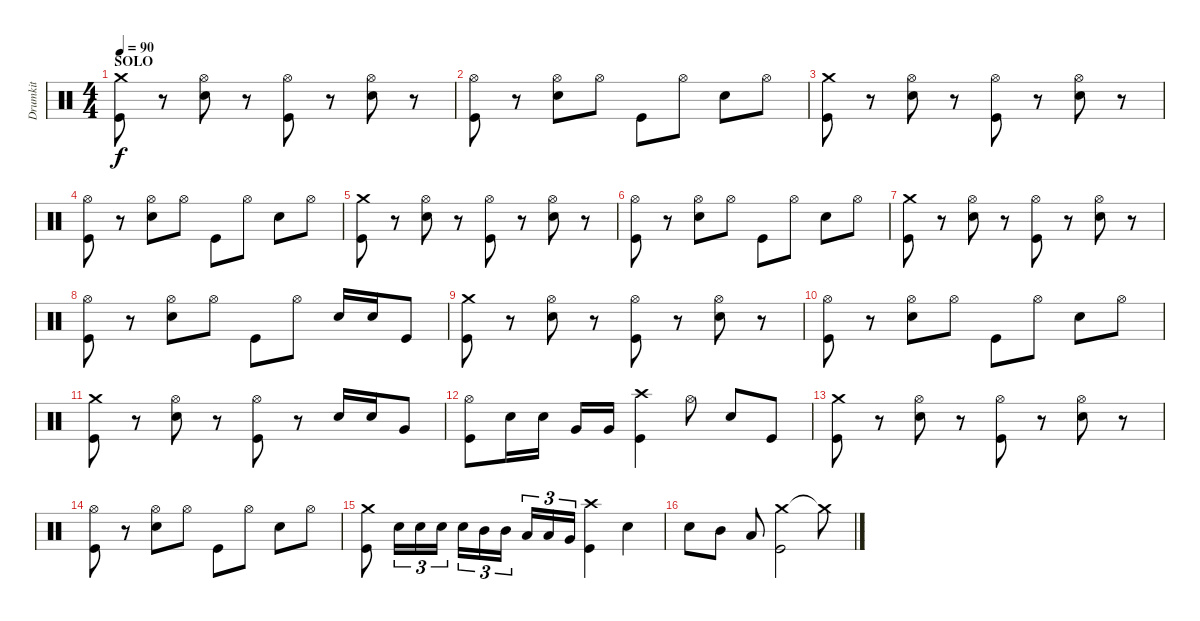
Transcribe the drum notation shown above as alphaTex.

\track ("Drumkit" "Drumkit") {instrument percussion}
\staff {score}
\articulation defaults
\ts (4 4)
\section ("" "SOLO")
\tempo 90
\clef neutral
\ks c
("Crash medium (hit)" "Kick (hit)").8{dy f} r.8 ("Hi-Hat (open)" "Snare (hit) 2").8 r.8 ("Hi-Hat (open)" "Kick (hit)").8 r.8 ("Hi-Hat (open)" "Snare (hit) 2").8 r.8 |
("Hi-Hat (open)" "Kick (hit)").8 r.8 ("Hi-Hat (open)" "Snare (hit) 2").8 "Hi-Hat (open)".8 "Kick (hit)".8 "Hi-Hat (open)".8 "Snare (hit) 2".8 "Hi-Hat (open)".8 |
("Crash medium (hit)" "Kick (hit)").8 r.8 ("Hi-Hat (open)" "Snare (hit) 2").8 r.8 ("Hi-Hat (open)" "Kick (hit)").8 r.8 ("Hi-Hat (open)" "Snare (hit) 2").8 r.8 |
("Hi-Hat (open)" "Kick (hit)").8 r.8 ("Hi-Hat (open)" "Snare (hit) 2").8 "Hi-Hat (open)".8 "Kick (hit)".8 "Hi-Hat (open)".8 "Snare (hit) 2".8 "Hi-Hat (open)".8 |
("Crash medium (hit)" "Kick (hit)").8 r.8 ("Hi-Hat (open)" "Snare (hit) 2").8 r.8 ("Hi-Hat (open)" "Kick (hit)").8 r.8 ("Hi-Hat (open)" "Snare (hit) 2").8 r.8 |
("Hi-Hat (open)" "Kick (hit)").8 r.8 ("Hi-Hat (open)" "Snare (hit) 2").8 "Hi-Hat (open)".8 "Kick (hit)".8 "Hi-Hat (open)".8 "Snare (hit) 2".8 "Hi-Hat (open)".8 |
("Crash medium (hit)" "Kick (hit)").8 r.8 ("Hi-Hat (open)" "Snare (hit) 2").8 r.8 ("Hi-Hat (open)" "Kick (hit)").8 r.8 ("Hi-Hat (open)" "Snare (hit) 2").8 r.8 |
("Hi-Hat (open)" "Kick (hit)").8 r.8 ("Hi-Hat (open)" "Snare (hit) 2").8 "Hi-Hat (open)".8 "Kick (hit)".8 "Hi-Hat (open)".8 "Snare (hit) 2".16 "Snare (hit) 2".16 "Kick (hit)".8 |
("Crash medium (hit)" "Kick (hit)").8 r.8 ("Hi-Hat (open)" "Snare (hit) 2").8 r.8 ("Hi-Hat (open)" "Kick (hit)").8 r.8 ("Hi-Hat (open)" "Snare (hit) 2").8 r.8 |
("Hi-Hat (open)" "Kick (hit)").8 r.8 ("Hi-Hat (open)" "Snare (hit) 2").8 "Hi-Hat (open)".8 "Kick (hit)".8 "Hi-Hat (open)".8 "Snare (hit) 2".8 "Hi-Hat (open)".8 |
("Crash medium (hit)" "Kick (hit)").8 r.8 ("Hi-Hat (open)" "Snare (hit) 2").8 r.8 ("Hi-Hat (open)" "Kick (hit)").8 r.8 "Snare (hit) 2".16 "Snare (hit) 2".16 "Very Low Tom (hit)".8 |
("Hi-Hat (open)" "Kick (hit)").8 "Snare (hit) 2".16 "Snare (hit) 2".16 "Very Low Tom (hit)".16 "Very Low Tom (hit)".16 ("Crash high (hit)" "Kick (hit)").4 "Hi-Hat (open)".8 "Snare (hit) 2".8 "Kick (hit)".8 |
("Crash medium (hit)" "Kick (hit)").8 r.8 ("Hi-Hat (open)" "Snare (hit) 2").8 r.8 ("Hi-Hat (open)" "Kick (hit)").8 r.8 ("Hi-Hat (open)" "Snare (hit) 2").8 r.8 |
("Hi-Hat (open)" "Kick (hit)").8 r.8 ("Hi-Hat (open)" "Snare (hit) 2").8 "Hi-Hat (open)".8 "Kick (hit)".8 "Hi-Hat (open)".8 "Snare (hit) 2".8 "Hi-Hat (open)".8 |
("Crash medium (hit)" "Kick (hit)").8 "Snare (hit) 2".16{tu (3 2)} "Snare (hit) 2".16{tu (3 2)} "Snare (hit) 2".16{tu (3 2)} "Snare (hit) 2".16{tu (3 2)} "Mid Tom (hit)".16{tu (3 2)} "Mid Tom (hit)".16{tu (3 2)} "Low Tom (hit)".16{tu (3 2)} "Low Tom (hit)".16{tu (3 2)} "Very Low Tom (hit)".16{tu (3 2)} ("Crash high (hit)" "Kick (hit)").4 "Snare (hit) 2".4 |
"Snare (hit) 2".8 "Mid Tom (hit)".8 "Low Tom (hit)".8 ("Crash medium (hit)" "Kick (hit)").2 "Crash medium (hit)"{t}.8
